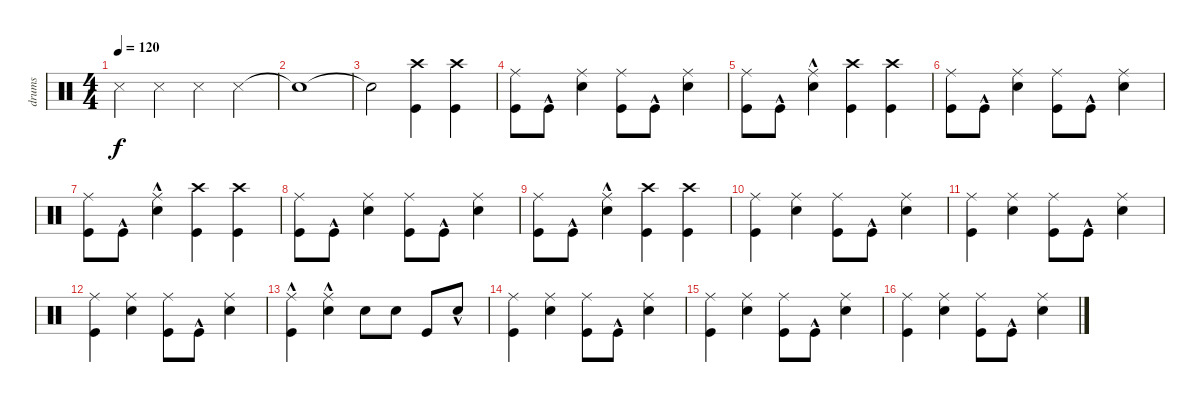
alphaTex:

\track ("drums" "drums") {instrument percussion}
\staff {score}
\articulation defaults
\ts (4 4)
\tempo 120
\clef neutral
\ks c "Snare (side stick) 3".4{dy f} "Snare (side stick) 3".4 "Snare (side stick) 3".4 "Snare (side stick) 3".4
|
"Snare (hit)"{t}.1 |
"Snare (hit)"{t}.2 ("Kick (hit)" "Crash high (hit)").4 ("Kick (hit)" "Crash high (hit)").4 |
("Kick (hit)" "Ride (middle)").8 "Kick (hit)"{hac}.8 ("Snare (hit) 2" "Ride (middle)").4 ("Kick (hit)" "Ride (middle)").8 "Kick (hit)"{hac}.8 ("Snare (hit) 2" "Ride (middle)").4 |
("Kick (hit)" "Ride (middle)").8 "Kick (hit)"{hac}.8 ("Snare (hit) 2" "Ride (middle)"{hac}).4 ("Kick (hit)" "Crash high (hit)").4 ("Kick (hit)" "Crash high (hit)").4 |
("Kick (hit)" "Ride (middle)").8 "Kick (hit)"{hac}.8 ("Snare (hit) 2" "Ride (middle)").4 ("Kick (hit)" "Ride (middle)").8 "Kick (hit)"{hac}.8 ("Snare (hit) 2" "Ride (middle)").4 |
("Kick (hit)" "Ride (middle)").8 "Kick (hit)"{hac}.8 ("Snare (hit) 2" "Ride (middle)"{hac}).4 ("Kick (hit)" "Crash high (hit)").4 ("Kick (hit)" "Crash high (hit)").4 |
("Kick (hit)" "Ride (middle)").8 "Kick (hit)"{hac}.8 ("Snare (hit) 2" "Ride (middle)").4 ("Kick (hit)" "Ride (middle)").8 "Kick (hit)"{hac}.8 ("Snare (hit) 2" "Ride (middle)").4 |
("Kick (hit)" "Ride (middle)").8 "Kick (hit)"{hac}.8 ("Snare (hit) 2" "Ride (middle)"{hac}).4 ("Kick (hit)" "Crash high (hit)").4 ("Kick (hit)" "Crash high (hit)").4 |
("Kick (hit)" "Ride (middle)").4 ("Snare (hit) 2" "Ride (middle)").4 ("Kick (hit)" "Ride (middle)").8 "Kick (hit)"{hac}.8 ("Snare (hit) 2" "Ride (middle)").4 |
("Kick (hit)" "Ride (middle)").4 ("Snare (hit) 2" "Ride (middle)").4 ("Kick (hit)" "Ride (middle)").8 "Kick (hit)"{hac}.8 ("Snare (hit) 2" "Ride (middle)").4 |
("Kick (hit)" "Ride (middle)").4 ("Snare (hit) 2" "Ride (middle)").4 ("Kick (hit)" "Ride (middle)").8 "Kick (hit)"{hac}.8 ("Snare (hit) 2" "Ride (middle)").4 |
("Kick (hit)"{hac} "Ride (middle)").4 ("Snare (hit) 2" "Ride (middle)"{hac}).4 "Snare (hit) 2".8 "Snare (hit) 2".8 "Kick (hit)".8 "Snare (hit) 2"{hac}.8 |
("Kick (hit)" "Ride (middle)").4 ("Snare (hit) 2" "Ride (middle)").4 ("Kick (hit)" "Ride (middle)").8 "Kick (hit)"{hac}.8 ("Snare (hit) 2" "Ride (middle)").4 |
("Kick (hit)" "Ride (middle)").4 ("Snare (hit) 2" "Ride (middle)").4 ("Kick (hit)" "Ride (middle)").8 "Kick (hit)"{hac}.8 ("Snare (hit) 2" "Ride (middle)").4 |
("Kick (hit)" "Ride (middle)").4 ("Snare (hit) 2" "Ride (middle)").4 ("Kick (hit)" "Ride (middle)").8 "Kick (hit)"{hac}.8 ("Snare (hit) 2" "Ride (middle)").4
